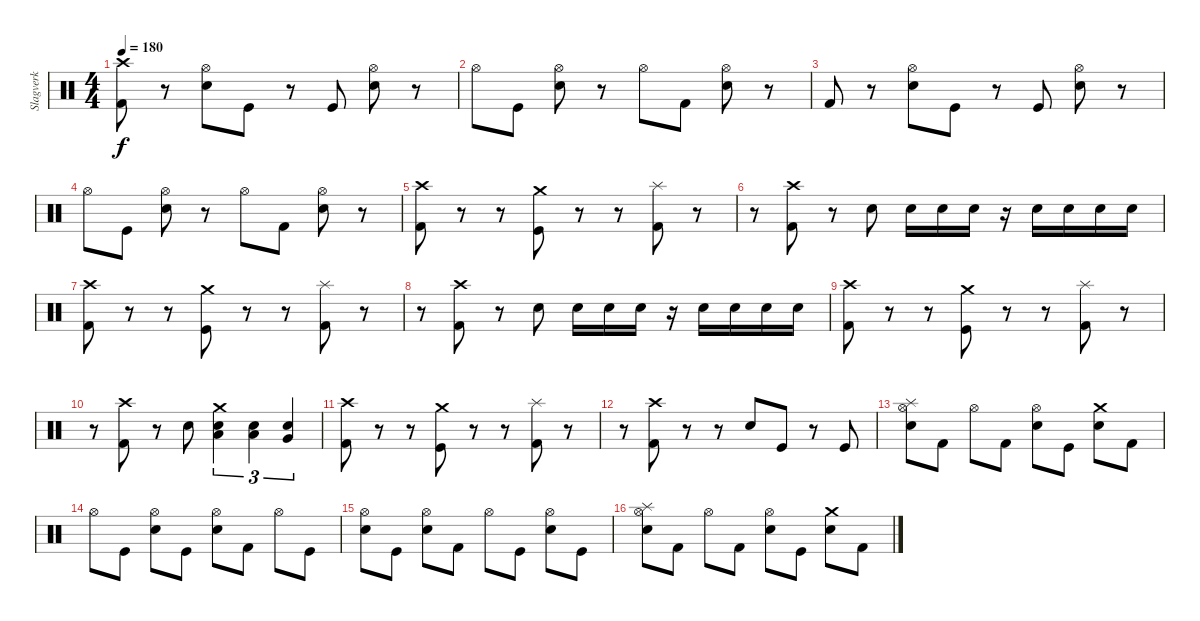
\track ("Slagverk" "Slagverk") {instrument percussion}
\staff {score}
\articulation defaults
\ts (4 4)
\tempo 180
\clef neutral
\ks c
("Crash high (hit)" "Kick (hit) 2").8{dy f} r.8 ("Hi-Hat (open)" "Electric Snare (hit)").8 "Kick (hit)".8 r.8 "Kick (hit)".8 ("Hi-Hat (open)" "Electric Snare (hit)").8 r.8 |
"Hi-Hat (open)".8 "Kick (hit)".8 ("Hi-Hat (open)" "Electric Snare (hit)").8 r.8 "Hi-Hat (open)".8 "Kick (hit) 2".8 ("Hi-Hat (open)" "Electric Snare (hit)").8 r.8 |
"Kick (hit) 2".8 r.8 ("Hi-Hat (open)" "Electric Snare (hit)").8 "Kick (hit)".8 r.8 "Kick (hit)".8 ("Hi-Hat (open)" "Electric Snare (hit)").8 r.8 |
"Hi-Hat (open)".8 "Kick (hit)".8 ("Hi-Hat (open)" "Electric Snare (hit)").8 r.8 "Hi-Hat (open)".8 "Kick (hit) 2".8 ("Hi-Hat (open)" "Electric Snare (hit)").8 r.8 |
("Crash high (hit)" "Kick (hit) 2").8 r.8 r.8 ("Crash medium (hit)" "Kick (hit)").8 r.8 r.8 ("Splash (hit)" "Kick (hit) 2").8 r.8 |
r.8 ("Crash high (hit)" "Kick (hit) 2").8 r.8 "Electric Snare (hit)".8 "Electric Snare (hit)".16 "Electric Snare (hit)".16 "Electric Snare (hit)".16 r.16 "Electric Snare (hit)".16 "Electric Snare (hit)".16 "Electric Snare (hit)".16 "Electric Snare (hit)".16 |
("Crash high (hit)" "Kick (hit) 2").8 r.8 r.8 ("Crash medium (hit)" "Kick (hit)").8 r.8 r.8 ("Splash (hit)" "Kick (hit) 2").8 r.8 |
r.8 ("Crash high (hit)" "Kick (hit) 2").8 r.8 "Electric Snare (hit)".8 "Electric Snare (hit)".16 "Electric Snare (hit)".16 "Electric Snare (hit)".16 r.16 "Electric Snare (hit)".16 "Electric Snare (hit)".16 "Electric Snare (hit)".16 "Electric Snare (hit)".16 |
("Crash high (hit)" "Kick (hit) 2").8 r.8 r.8 ("Crash medium (hit)" "Kick (hit)").8 r.8 r.8 ("Splash (hit)" "Kick (hit) 2").8 r.8 |
r.8 ("Crash high (hit)" "Kick (hit) 2").8 r.8 "Electric Snare (hit)".8 ("Low Tom (hit)" "Crash medium (hit)" "Electric Snare (hit)").4{tu (3 2)} ("Low Tom (hit)" "Electric Snare (hit)").4{tu (3 2)} ("Very Low Tom (hit)" "Electric Snare (hit)").4{tu (3 2)} |
("Crash high (hit)" "Kick (hit) 2").8 r.8 r.8 ("Crash medium (hit)" "Kick (hit)").8 r.8 r.8 ("Splash (hit)" "Kick (hit) 2").8 r.8 |
r.8 ("Crash high (hit)" "Kick (hit) 2").8 r.8 r.8 "Electric Snare (hit)".8 "Kick (hit)".8 r.8 "Kick (hit)".8 |
("Splash (hit)" "Hi-Hat (open)" "Electric Snare (hit)").8 "Kick (hit) 2".8 "Hi-Hat (open)".8 "Kick (hit) 2".8 ("Hi-Hat (open)" "Electric Snare (hit)").8 "Kick (hit)".8 ("Crash medium (hit)" "Electric Snare (hit)").8 "Kick (hit) 2".8 |
"Hi-Hat (open)".8 "Kick (hit)".8 ("Hi-Hat (open)" "Electric Snare (hit)").8 "Kick (hit)".8 ("Hi-Hat (open)" "Electric Snare (hit)").8 "Kick (hit) 2".8 "Hi-Hat (open)".8 "Kick (hit)".8 |
("Hi-Hat (open)" "Electric Snare (hit)").8 "Kick (hit)".8 ("Hi-Hat (open)" "Electric Snare (hit)").8 "Kick (hit) 2".8 "Hi-Hat (open)".8 "Kick (hit)".8 ("Hi-Hat (open)" "Electric Snare (hit)").8 "Kick (hit)".8 |
("Splash (hit)" "Hi-Hat (open)" "Electric Snare (hit)").8 "Kick (hit) 2".8 "Hi-Hat (open)".8 "Kick (hit) 2".8 ("Hi-Hat (open)" "Electric Snare (hit)").8 "Kick (hit)".8 ("Crash medium (hit)" "Electric Snare (hit)").8 "Kick (hit) 2".8
